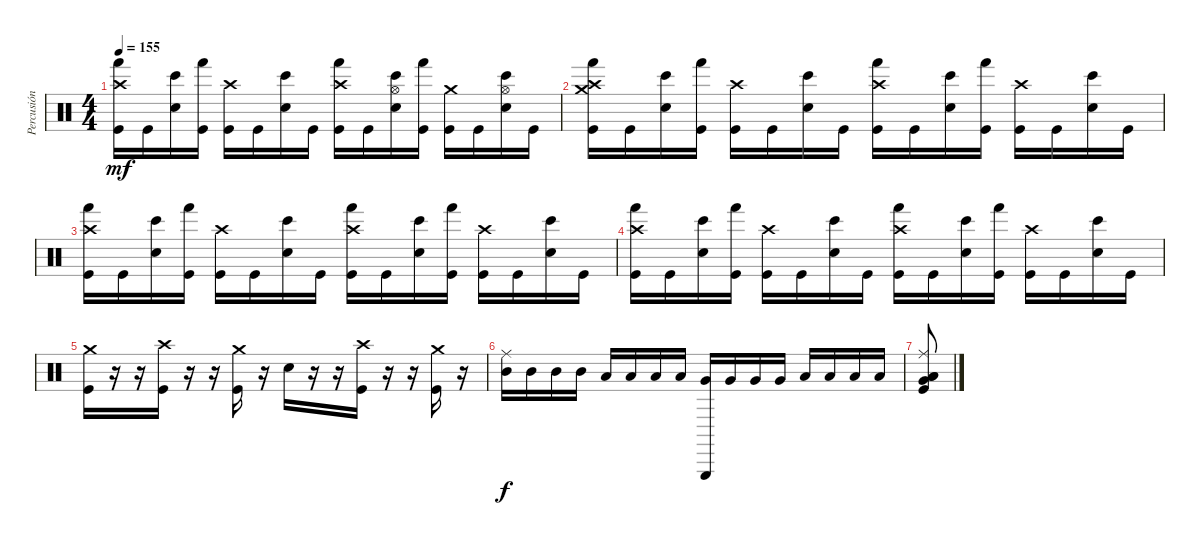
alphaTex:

\track ("Percusión" "Percusión") {instrument percussion}
\staff {score}
\articulation defaults
\ts (4 4)
\tempo 155
\clef neutral
\ks c
("Hand (hit)" "Crash high (hit)" "Kick (hit)").16{dy mf} "Kick (hit)".16 ("Bongo High (hit)" "Electric Snare (hit)").16 ("Hand (hit)" "Kick (hit)").16 ("Crash high (hit)" "Kick (hit)").16 "Kick (hit)".16 ("Bongo High (hit)" "Electric Snare (hit)").16 "Kick (hit)".16 ("Hand (hit)" "Crash high (hit)" "Kick (hit)").16 "Kick (hit)".16 ("Bongo High (hit)" "Hi-Hat (open)" "Electric Snare (hit)").16 ("Hand (hit)" "Kick (hit)").16 ("Crash medium (hit)" "Kick (hit)").16 "Kick (hit)".16 ("Bongo High (hit)" "Hi-Hat (open)" "Electric Snare (hit)").16 "Kick (hit)".16 |
("Hand (hit)" "Crash medium (hit)" "Crash high (hit)" "Kick (hit)").16 "Kick (hit)".16 ("Bongo High (hit)" "Electric Snare (hit)").16 ("Hand (hit)" "Kick (hit)").16 ("Crash high (hit)" "Kick (hit)").16 "Kick (hit)".16 ("Bongo High (hit)" "Electric Snare (hit)").16 "Kick (hit)".16 ("Hand (hit)" "Crash high (hit)" "Kick (hit)").16 "Kick (hit)".16 ("Bongo High (hit)" "Electric Snare (hit)").16 ("Hand (hit)" "Kick (hit)").16 ("Crash high (hit)" "Kick (hit)").16 "Kick (hit)".16 ("Bongo High (hit)" "Electric Snare (hit)").16 "Kick (hit)".16 |
("Hand (hit)" "Crash high (hit)" "Kick (hit)").16 "Kick (hit)".16 ("Bongo High (hit)" "Electric Snare (hit)").16 ("Hand (hit)" "Kick (hit)").16 ("Crash high (hit)" "Kick (hit)").16 "Kick (hit)".16 ("Bongo High (hit)" "Electric Snare (hit)").16 "Kick (hit)".16 ("Hand (hit)" "Crash high (hit)" "Kick (hit)").16 "Kick (hit)".16 ("Bongo High (hit)" "Electric Snare (hit)").16 ("Hand (hit)" "Kick (hit)").16 ("Crash high (hit)" "Kick (hit)").16 "Kick (hit)".16 ("Bongo High (hit)" "Electric Snare (hit)").16 "Kick (hit)".16 |
("Hand (hit)" "Crash high (hit)" "Kick (hit)").16 "Kick (hit)".16 ("Bongo High (hit)" "Electric Snare (hit)").16 ("Hand (hit)" "Kick (hit)").16 ("Crash high (hit)" "Kick (hit)").16 "Kick (hit)".16 ("Bongo High (hit)" "Electric Snare (hit)").16 "Kick (hit)".16 ("Hand (hit)" "Crash high (hit)" "Kick (hit)").16 "Kick (hit)".16 ("Bongo High (hit)" "Electric Snare (hit)").16 ("Hand (hit)" "Kick (hit)").16 ("Crash high (hit)" "Kick (hit)").16 "Kick (hit)".16 ("Bongo High (hit)" "Electric Snare (hit)").16 "Kick (hit)".16 |
("Crash medium (hit)" "Kick (hit)").16 r.16 r.16 ("Crash high (hit)" "Kick (hit)").16 r.16 r.16 ("Crash medium (hit)" "Kick (hit)").16 r.16 "Electric Snare (hit)".16 r.16 r.16 ("Crash high (hit)" "Kick (hit)").16 r.16 r.16 ("Crash medium (hit)" "Kick (hit)").16 r.16 |
("Ride (middle)" "Mid Tom (hit)").16{dy f} "Mid Tom (hit)".16 "Mid Tom (hit)".16 "Mid Tom (hit)".16 "Low Tom (hit)".16 "Low Tom (hit)".16 "Low Tom (hit)".16 "Low Tom (hit)".16 ("Triangle (hit)" "Very Low Tom (hit)").16 "Very Low Tom (hit)".16 "Very Low Tom (hit)".16 "Very Low Tom (hit)".16 "Low Floor Tom (hit)".16 "Low Floor Tom (hit)".16 "Low Floor Tom (hit)".16 "Low Floor Tom (hit)".16 |
("Ride (middle)" "Low Floor Tom (hit)" "Low Tom (hit)" "Very Low Tom (hit)" "Kick (hit)").8
